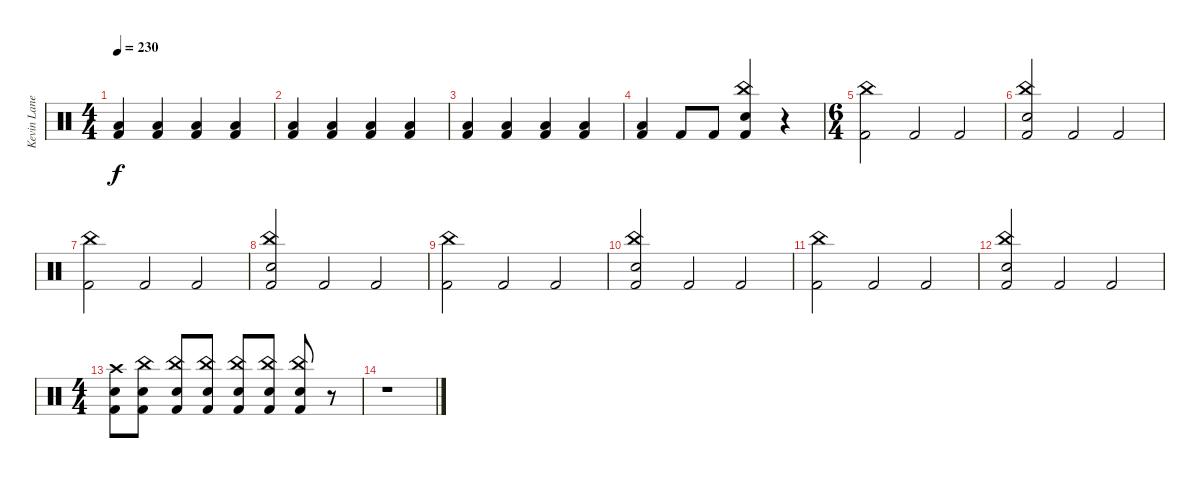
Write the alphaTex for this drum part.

\track ("Kevin Lane" "Kevin Lane") {instrument percussion}
\staff {score}
\articulation defaults
\ts (4 4)
\tempo 230
\clef neutral
\ks c
("Low Floor Tom (hit)" "Kick (hit) 2").4{dy f} ("Low Floor Tom (hit)" "Kick (hit) 2").4 ("Low Floor Tom (hit)" "Kick (hit) 2").4 ("Low Floor Tom (hit)" "Kick (hit) 2").4 |
("Low Floor Tom (hit)" "Kick (hit) 2").4 ("Low Floor Tom (hit)" "Kick (hit) 2").4 ("Low Floor Tom (hit)" "Kick (hit) 2").4 ("Low Floor Tom (hit)" "Kick (hit) 2").4 |
("Low Floor Tom (hit)" "Kick (hit) 2").4 ("Low Floor Tom (hit)" "Kick (hit) 2").4 ("Low Floor Tom (hit)" "Kick (hit) 2").4 ("Low Floor Tom (hit)" "Kick (hit) 2").4 |
("Low Floor Tom (hit)" "Kick (hit) 2").4 "Kick (hit) 2".8 "Kick (hit) 2".8 ("China (hit)" "Electric Snare (hit)" "Kick (hit) 2").4 r.4 |
\ts (6 4)
("China (hit)" "Kick (hit) 2").2 "Kick (hit) 2".2 "Kick (hit) 2".2 |
("China (hit)" "Electric Snare (hit)" "Kick (hit) 2").2 "Kick (hit) 2".2 "Kick (hit) 2".2 |
("China (hit)" "Kick (hit) 2").2 "Kick (hit) 2".2 "Kick (hit) 2".2 |
("China (hit)" "Electric Snare (hit)" "Kick (hit) 2").2 "Kick (hit) 2".2 "Kick (hit) 2".2 |
("China (hit)" "Kick (hit) 2").2 "Kick (hit) 2".2 "Kick (hit) 2".2 |
("China (hit)" "Electric Snare (hit)" "Kick (hit) 2").2 "Kick (hit) 2".2 "Kick (hit) 2".2 |
("China (hit)" "Kick (hit) 2").2 "Kick (hit) 2".2 "Kick (hit) 2".2 |
("China (hit)" "Electric Snare (hit)" "Kick (hit) 2").2 "Kick (hit) 2".2 "Kick (hit) 2".2 |
\ts (4 4)
("Crash high (hit)" "Electric Snare (hit)" "Kick (hit) 2").8 ("China (hit)" "Electric Snare (hit)" "Kick (hit) 2").8 ("China (hit)" "Electric Snare (hit)" "Kick (hit) 2").8 ("China (hit)" "Electric Snare (hit)" "Kick (hit) 2").8 ("China (hit)" "Electric Snare (hit)" "Kick (hit) 2").8 ("China (hit)" "Electric Snare (hit)" "Kick (hit) 2").8 ("China (hit)" "Electric Snare (hit)" "Kick (hit) 2").8 r.8 |
r.1
